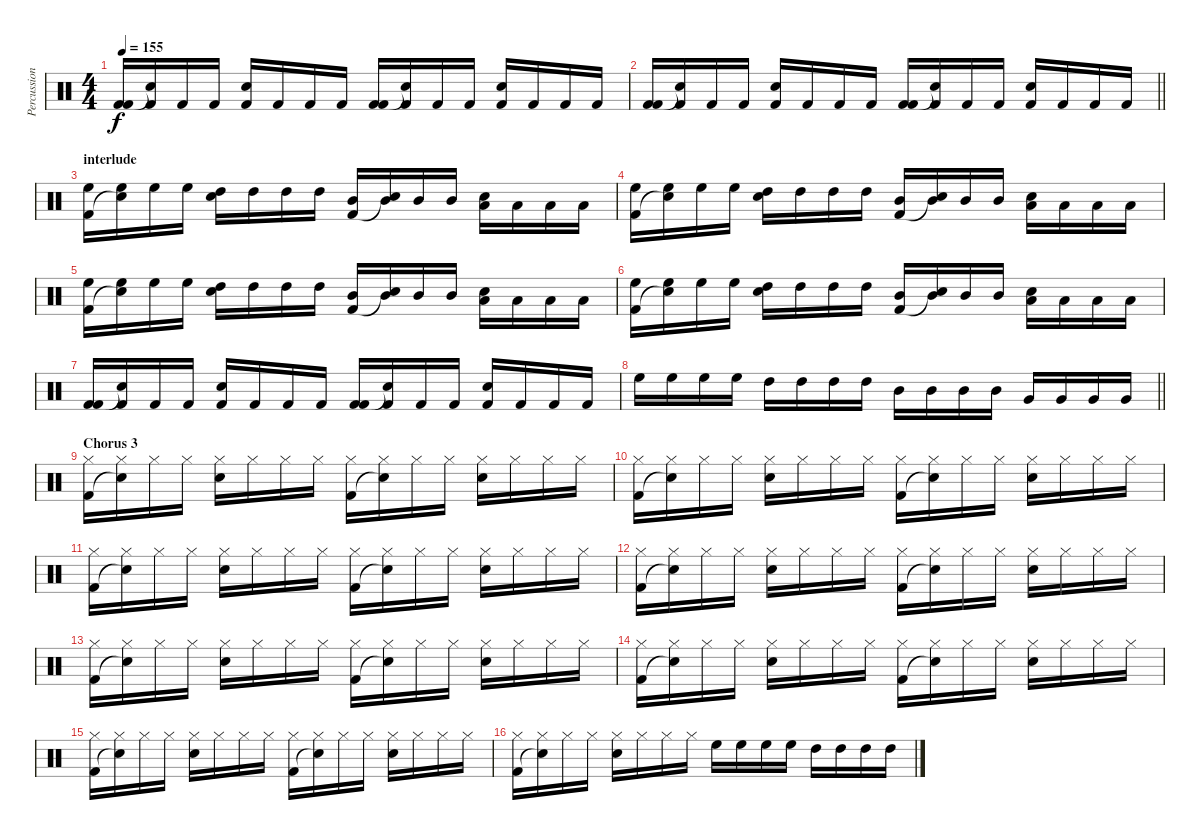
\track ("Percussion" "Percussion") {instrument percussion}
\staff {score}
\articulation defaults
\ts (4 4)
\tempo 155
\clef neutral
\ks c
("Kick (hit) 2" "Kick (hit) 2").16{dy f} ("Kick (hit) 2" "Snare (hit)"{t}).16 "Kick (hit) 2".16 "Kick (hit) 2".16 ("Kick (hit) 2" "Snare (hit) 2").16 "Kick (hit) 2".16 "Kick (hit) 2".16 "Kick (hit) 2".16 ("Kick (hit) 2" "Kick (hit) 2").16 ("Kick (hit) 2" "Snare (hit)"{t}).16 "Kick (hit) 2".16 "Kick (hit) 2".16 ("Kick (hit) 2" "Snare (hit) 2").16 "Kick (hit) 2".16 "Kick (hit) 2".16 "Kick (hit) 2".16 |
\barLineRight lightlight
("Kick (hit) 2" "Kick (hit) 2").16 ("Kick (hit) 2" "Snare (hit)"{t}).16 "Kick (hit) 2".16 "Kick (hit) 2".16 ("Kick (hit) 2" "Snare (hit) 2").16 "Kick (hit) 2".16 "Kick (hit) 2".16 "Kick (hit) 2".16 ("Kick (hit) 2" "Kick (hit) 2").16 ("Kick (hit) 2" "Snare (hit)"{t}).16 "Kick (hit) 2".16 "Kick (hit) 2".16 ("Kick (hit) 2" "Snare (hit) 2").16 "Kick (hit) 2".16 "Kick (hit) 2".16 "Kick (hit) 2".16 |
\section ("" "interlude")
("High Floor Tom (hit)" "Kick (hit) 2").16 ("High Floor Tom (hit)" "Snare (hit)"{t}).16 "High Floor Tom (hit)".16 "High Floor Tom (hit)".16 ("High Tom (hit)" "Snare (hit) 2").16 "High Tom (hit)".16 "High Tom (hit)".16 "High Tom (hit)".16 ("Mid Tom (hit)" "Kick (hit) 2").16 ("Mid Tom (hit)" "Snare (hit)"{t}).16 "Mid Tom (hit)".16 "Mid Tom (hit)".16 ("Low Tom (hit)" "Snare (hit) 2").16 "Low Tom (hit)".16 "Low Tom (hit)".16 "Low Tom (hit)".16 |
("High Floor Tom (hit)" "Kick (hit) 2").16 ("High Floor Tom (hit)" "Snare (hit)"{t}).16 "High Floor Tom (hit)".16 "High Floor Tom (hit)".16 ("High Tom (hit)" "Snare (hit) 2").16 "High Tom (hit)".16 "High Tom (hit)".16 "High Tom (hit)".16 ("Mid Tom (hit)" "Kick (hit) 2").16 ("Mid Tom (hit)" "Snare (hit)"{t}).16 "Mid Tom (hit)".16 "Mid Tom (hit)".16 ("Low Tom (hit)" "Snare (hit) 2").16 "Low Tom (hit)".16 "Low Tom (hit)".16 "Low Tom (hit)".16 |
("High Floor Tom (hit)" "Kick (hit) 2").16 ("High Floor Tom (hit)" "Snare (hit)"{t}).16 "High Floor Tom (hit)".16 "High Floor Tom (hit)".16 ("High Tom (hit)" "Snare (hit) 2").16 "High Tom (hit)".16 "High Tom (hit)".16 "High Tom (hit)".16 ("Mid Tom (hit)" "Kick (hit) 2").16 ("Mid Tom (hit)" "Snare (hit)"{t}).16 "Mid Tom (hit)".16 "Mid Tom (hit)".16 ("Low Tom (hit)" "Snare (hit) 2").16 "Low Tom (hit)".16 "Low Tom (hit)".16 "Low Tom (hit)".16 |
("High Floor Tom (hit)" "Kick (hit) 2").16 ("High Floor Tom (hit)" "Snare (hit)"{t}).16 "High Floor Tom (hit)".16 "High Floor Tom (hit)".16 ("High Tom (hit)" "Snare (hit) 2").16 "High Tom (hit)".16 "High Tom (hit)".16 "High Tom (hit)".16 ("Mid Tom (hit)" "Kick (hit) 2").16 ("Mid Tom (hit)" "Snare (hit)"{t}).16 "Mid Tom (hit)".16 "Mid Tom (hit)".16 ("Low Tom (hit)" "Snare (hit) 2").16 "Low Tom (hit)".16 "Low Tom (hit)".16 "Low Tom (hit)".16 |
("Kick (hit) 2" "Kick (hit) 2").16 ("Kick (hit) 2" "Snare (hit)"{t}).16 "Kick (hit) 2".16 "Kick (hit) 2".16 ("Kick (hit) 2" "Snare (hit) 2").16 "Kick (hit) 2".16 "Kick (hit) 2".16 "Kick (hit) 2".16 ("Kick (hit) 2" "Kick (hit) 2").16 ("Kick (hit) 2" "Snare (hit)"{t}).16 "Kick (hit) 2".16 "Kick (hit) 2".16 ("Kick (hit) 2" "Snare (hit) 2").16 "Kick (hit) 2".16 "Kick (hit) 2".16 "Kick (hit) 2".16 |
\barLineRight lightlight "High Floor Tom (hit)".16 "High Floor Tom (hit)".16 "High Floor Tom (hit)".16 "High Floor Tom (hit)".16 "High Tom (hit)".16 "High Tom (hit)".16 "High Tom (hit)".16 "High Tom (hit)".16 "Mid Tom (hit)".16 "Mid Tom (hit)".16 "Mid Tom (hit)".16 "Mid Tom (hit)".16 "Very Low Tom (hit)".16 "Very Low Tom (hit)".16 "Very Low Tom (hit)".16 "Very Low Tom (hit)".16
|
\section ("" "Chorus 3")
("Hi-Hat (closed)" "Kick (hit) 2").16 ("Hi-Hat (closed)" "Snare (hit)"{t}).16 "Hi-Hat (closed)".16 "Hi-Hat (closed)".16 ("Hi-Hat (closed)" "Snare (hit) 2").16 "Hi-Hat (closed)".16 "Hi-Hat (closed)".16 "Hi-Hat (closed)".16 ("Hi-Hat (closed)" "Kick (hit) 2").16 ("Hi-Hat (closed)" "Snare (hit)"{t}).16 "Hi-Hat (closed)".16 "Hi-Hat (closed)".16 ("Hi-Hat (closed)" "Snare (hit) 2").16 "Hi-Hat (closed)".16 "Hi-Hat (closed)".16 "Hi-Hat (closed)".16 |
("Hi-Hat (closed)" "Kick (hit) 2").16 ("Hi-Hat (closed)" "Snare (hit)"{t}).16 "Hi-Hat (closed)".16 "Hi-Hat (closed)".16 ("Hi-Hat (closed)" "Snare (hit) 2").16 "Hi-Hat (closed)".16 "Hi-Hat (closed)".16 "Hi-Hat (closed)".16 ("Hi-Hat (closed)" "Kick (hit) 2").16 ("Hi-Hat (closed)" "Snare (hit)"{t}).16 "Hi-Hat (closed)".16 "Hi-Hat (closed)".16 ("Hi-Hat (closed)" "Snare (hit) 2").16 "Hi-Hat (closed)".16 "Hi-Hat (closed)".16 "Hi-Hat (closed)".16 |
("Hi-Hat (closed)" "Kick (hit) 2").16 ("Hi-Hat (closed)" "Snare (hit)"{t}).16 "Hi-Hat (closed)".16 "Hi-Hat (closed)".16 ("Hi-Hat (closed)" "Snare (hit) 2").16 "Hi-Hat (closed)".16 "Hi-Hat (closed)".16 "Hi-Hat (closed)".16 ("Hi-Hat (closed)" "Kick (hit) 2").16 ("Hi-Hat (closed)" "Snare (hit)"{t}).16 "Hi-Hat (closed)".16 "Hi-Hat (closed)".16 ("Hi-Hat (closed)" "Snare (hit) 2").16 "Hi-Hat (closed)".16 "Hi-Hat (closed)".16 "Hi-Hat (closed)".16 |
("Hi-Hat (closed)" "Kick (hit) 2").16 ("Hi-Hat (closed)" "Snare (hit)"{t}).16 "Hi-Hat (closed)".16 "Hi-Hat (closed)".16 ("Hi-Hat (closed)" "Snare (hit) 2").16 "Hi-Hat (closed)".16 "Hi-Hat (closed)".16 "Hi-Hat (closed)".16 ("Hi-Hat (closed)" "Kick (hit) 2").16 ("Hi-Hat (closed)" "Snare (hit)"{t}).16 "Hi-Hat (closed)".16 "Hi-Hat (closed)".16 ("Hi-Hat (closed)" "Snare (hit) 2").16 "Hi-Hat (closed)".16 "Hi-Hat (closed)".16 "Hi-Hat (closed)".16 |
("Hi-Hat (closed)" "Kick (hit) 2").16 ("Hi-Hat (closed)" "Snare (hit)"{t}).16 "Hi-Hat (closed)".16 "Hi-Hat (closed)".16 ("Hi-Hat (closed)" "Snare (hit) 2").16 "Hi-Hat (closed)".16 "Hi-Hat (closed)".16 "Hi-Hat (closed)".16 ("Hi-Hat (closed)" "Kick (hit) 2").16 ("Hi-Hat (closed)" "Snare (hit)"{t}).16 "Hi-Hat (closed)".16 "Hi-Hat (closed)".16 ("Hi-Hat (closed)" "Snare (hit) 2").16 "Hi-Hat (closed)".16 "Hi-Hat (closed)".16 "Hi-Hat (closed)".16 |
("Hi-Hat (closed)" "Kick (hit) 2").16 ("Hi-Hat (closed)" "Snare (hit)"{t}).16 "Hi-Hat (closed)".16 "Hi-Hat (closed)".16 ("Hi-Hat (closed)" "Snare (hit) 2").16 "Hi-Hat (closed)".16 "Hi-Hat (closed)".16 "Hi-Hat (closed)".16 ("Hi-Hat (closed)" "Kick (hit) 2").16 ("Hi-Hat (closed)" "Snare (hit)"{t}).16 "Hi-Hat (closed)".16 "Hi-Hat (closed)".16 ("Hi-Hat (closed)" "Snare (hit) 2").16 "Hi-Hat (closed)".16 "Hi-Hat (closed)".16 "Hi-Hat (closed)".16 |
("Hi-Hat (closed)" "Kick (hit) 2").16 ("Hi-Hat (closed)" "Snare (hit)"{t}).16 "Hi-Hat (closed)".16 "Hi-Hat (closed)".16 ("Hi-Hat (closed)" "Snare (hit) 2").16 "Hi-Hat (closed)".16 "Hi-Hat (closed)".16 "Hi-Hat (closed)".16 ("Hi-Hat (closed)" "Kick (hit) 2").16 ("Hi-Hat (closed)" "Snare (hit)"{t}).16 "Hi-Hat (closed)".16 "Hi-Hat (closed)".16 ("Hi-Hat (closed)" "Snare (hit) 2").16 "Hi-Hat (closed)".16 "Hi-Hat (closed)".16 "Hi-Hat (closed)".16 |
("Hi-Hat (closed)" "Kick (hit) 2").16 ("Hi-Hat (closed)" "Snare (hit)"{t}).16 "Hi-Hat (closed)".16 "Hi-Hat (closed)".16 ("Hi-Hat (closed)" "Snare (hit) 2").16 "Hi-Hat (closed)".16 "Hi-Hat (closed)".16 "Hi-Hat (closed)".16 "High Floor Tom (hit)".16 "High Floor Tom (hit)".16 "High Floor Tom (hit)".16 "High Floor Tom (hit)".16 "High Tom (hit)".16 "High Tom (hit)".16 "High Tom (hit)".16 "High Tom (hit)".16
